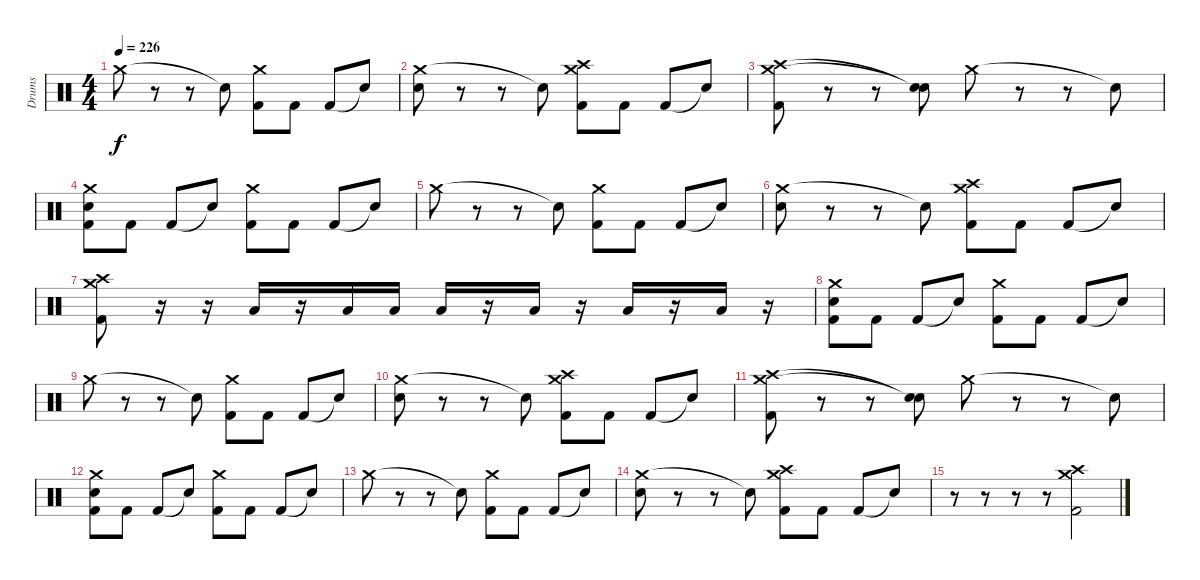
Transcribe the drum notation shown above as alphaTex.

\track ("Drums" "Drums") {instrument percussion}
\staff {score}
\articulation defaults
\ts (4 4)
\tempo 226
\clef neutral
\ks c "Crash medium (hit)".8{dy f}
r.8 r.8 "Snare (hit)"{t}.8 ("Crash medium (hit)" "Kick (hit) 2").8 "Kick (hit) 2".8 "Kick (hit) 2".8 "Snare (hit)"{t}.8 |
("Crash medium (hit)" "Electric Snare (hit)").8 r.8 r.8 "Snare (hit)"{t}.8 ("Crash high (hit)" "Crash medium (hit)" "Kick (hit) 2").8 "Kick (hit) 2".8 "Kick (hit) 2".8 "Snare (hit)"{t}.8 |
("Crash high (hit)" "Crash medium (hit)" "Kick (hit) 2").8 r.8 r.8 ("Snare (hit)"{t} "Snare (hit)"{t}).8 "Crash medium (hit)".8 r.8 r.8 "Snare (hit)"{t}.8 |
("Crash medium (hit)" "Electric Snare (hit)" "Kick (hit) 2").8 "Kick (hit) 2".8 "Kick (hit) 2".8 "Snare (hit)"{t}.8 ("Crash medium (hit)" "Kick (hit) 2").8 "Kick (hit) 2".8 "Kick (hit) 2".8 "Snare (hit)"{t}.8 |
"Crash medium (hit)".8 r.8 r.8 "Snare (hit)"{t}.8 ("Crash medium (hit)" "Kick (hit) 2").8 "Kick (hit) 2".8 "Kick (hit) 2".8 "Snare (hit)"{t}.8 |
("Crash medium (hit)" "Electric Snare (hit)").8 r.8 r.8 "Snare (hit)"{t}.8 ("Crash high (hit)" "Crash medium (hit)" "Kick (hit) 2").8 "Kick (hit) 2".8 "Kick (hit) 2".8 "Snare (hit)"{t}.8 |
("Crash high (hit)" "Crash medium (hit)" "Kick (hit) 2").8 r.16 r.16 "Low Tom (hit)".16 r.16 "Low Tom (hit)".16 "Low Tom (hit)".16 "Low Tom (hit)".16 r.16 "Low Floor Tom (hit)".16 r.16 "Low Floor Tom (hit)".16 r.16 "Low Floor Tom (hit)".16 r.16 |
("Crash medium (hit)" "Electric Snare (hit)" "Kick (hit) 2").8 "Kick (hit) 2".8 "Kick (hit) 2".8 "Snare (hit)"{t}.8 ("Crash medium (hit)" "Kick (hit) 2").8 "Kick (hit) 2".8 "Kick (hit) 2".8 "Snare (hit)"{t}.8 |
"Crash medium (hit)".8 r.8 r.8 "Snare (hit)"{t}.8 ("Crash medium (hit)" "Kick (hit) 2").8 "Kick (hit) 2".8 "Kick (hit) 2".8 "Snare (hit)"{t}.8 |
("Crash medium (hit)" "Electric Snare (hit)").8 r.8 r.8 "Snare (hit)"{t}.8 ("Crash high (hit)" "Crash medium (hit)" "Kick (hit) 2").8 "Kick (hit) 2".8 "Kick (hit) 2".8 "Snare (hit)"{t}.8 |
("Crash high (hit)" "Crash medium (hit)" "Kick (hit) 2").8 r.8 r.8 ("Snare (hit)"{t} "Snare (hit)"{t}).8 "Crash medium (hit)".8 r.8 r.8 "Snare (hit)"{t}.8 |
("Crash medium (hit)" "Electric Snare (hit)" "Kick (hit) 2").8 "Kick (hit) 2".8 "Kick (hit) 2".8 "Snare (hit)"{t}.8 ("Crash medium (hit)" "Kick (hit) 2").8 "Kick (hit) 2".8 "Kick (hit) 2".8 "Snare (hit)"{t}.8 |
"Crash medium (hit)".8 r.8 r.8 "Snare (hit)"{t}.8 ("Crash medium (hit)" "Kick (hit) 2").8 "Kick (hit) 2".8 "Kick (hit) 2".8 "Snare (hit)"{t}.8 |
("Crash medium (hit)" "Electric Snare (hit)").8 r.8 r.8 "Snare (hit)"{t}.8 ("Crash high (hit)" "Crash medium (hit)" "Kick (hit) 2").8 "Kick (hit) 2".8 "Kick (hit) 2".8 "Snare (hit)"{t}.8 |
r.8 r.8 r.8 r.8 ("Crash high (hit)" "Crash medium (hit)" "Kick (hit) 2").2
